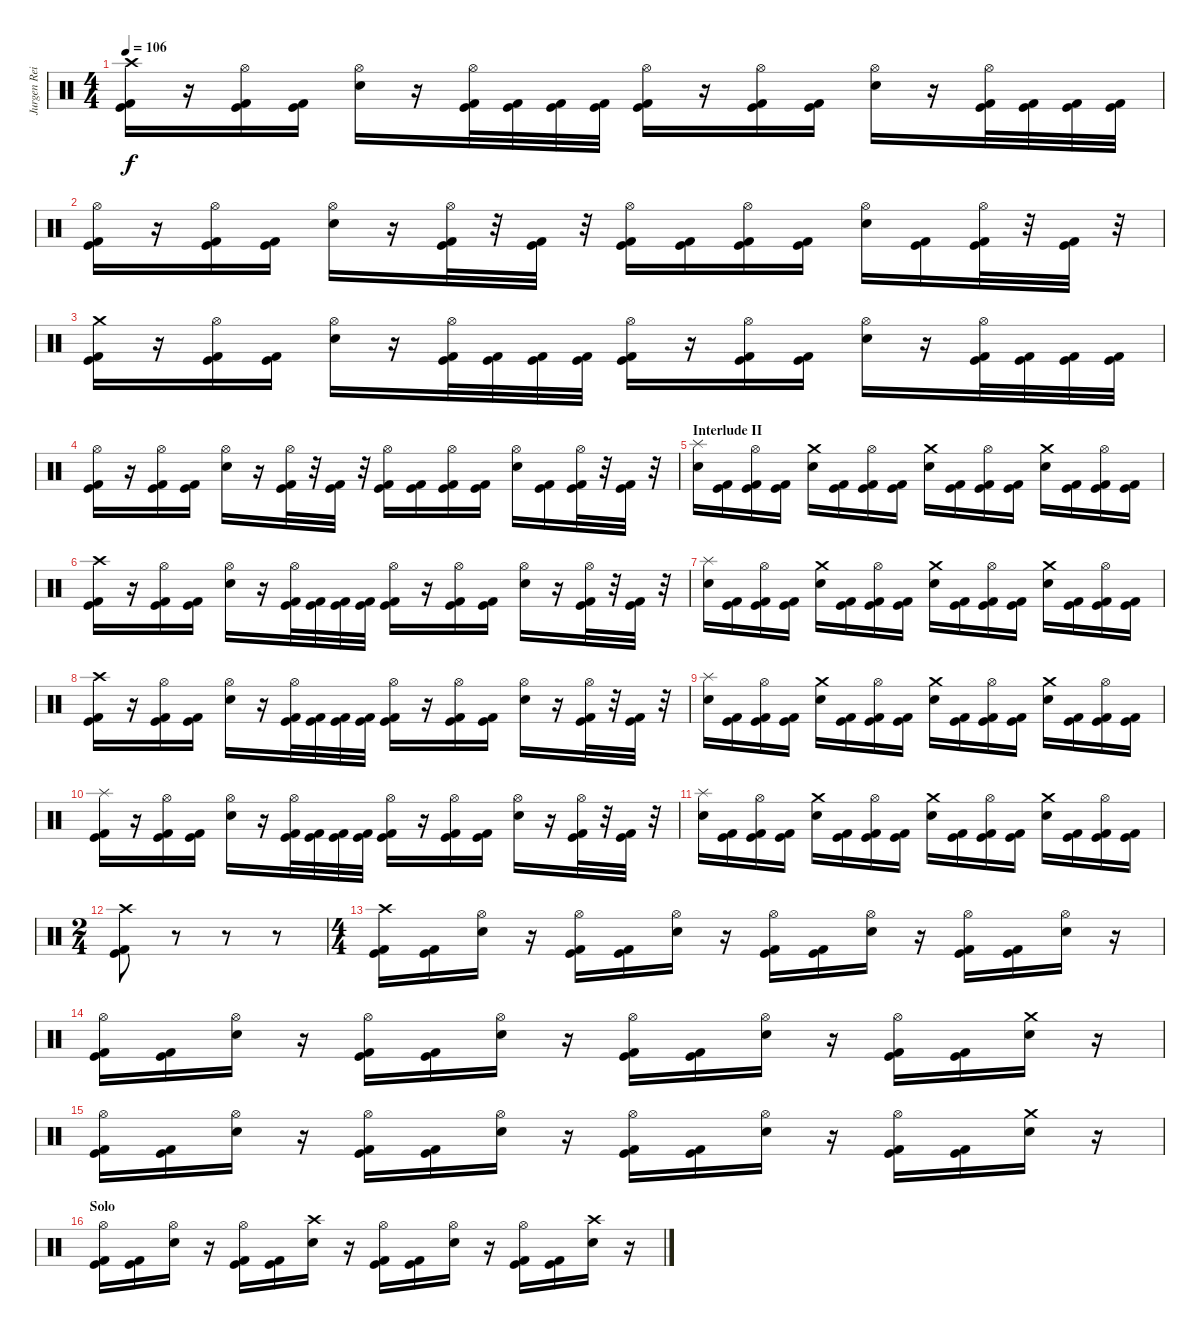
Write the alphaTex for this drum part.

\track ("Jurgen Reil" "Jurgen Rei") {instrument percussion}
\staff {score}
\articulation defaults
\ts (4 4)
\tempo 106
\clef neutral
\ks c
("Crash high (hit)" "Kick (hit)" "Kick (hit) 2").16{dy f} r.16 ("Hi-Hat (open)" "Kick (hit)" "Kick (hit) 2").16 ("Kick (hit)" "Kick (hit) 2").16 ("Hi-Hat (open)" "Electric Snare (hit)").16 r.16 ("Hi-Hat (open)" "Kick (hit)" "Kick (hit) 2").32 ("Kick (hit)" "Kick (hit) 2").32 ("Kick (hit)" "Kick (hit) 2").32 ("Kick (hit)" "Kick (hit) 2").32 ("Hi-Hat (open)" "Kick (hit)" "Kick (hit) 2").16 r.16 ("Hi-Hat (open)" "Kick (hit)" "Kick (hit) 2").16 ("Kick (hit)" "Kick (hit) 2").16 ("Hi-Hat (open)" "Electric Snare (hit)").16 r.16 ("Hi-Hat (open)" "Kick (hit)" "Kick (hit) 2").32 ("Kick (hit)" "Kick (hit) 2").32 ("Kick (hit)" "Kick (hit) 2").32 ("Kick (hit)" "Kick (hit) 2").32 |
("Hi-Hat (open)" "Kick (hit)" "Kick (hit) 2").16 r.16 ("Hi-Hat (open)" "Kick (hit)" "Kick (hit) 2").16 ("Kick (hit)" "Kick (hit) 2").16 ("Hi-Hat (open)" "Electric Snare (hit)").16 r.16 ("Hi-Hat (open)" "Kick (hit)" "Kick (hit) 2").32 r.32 ("Kick (hit)" "Kick (hit) 2").32 r.32 ("Hi-Hat (open)" "Kick (hit)" "Kick (hit) 2").16 ("Kick (hit)" "Kick (hit) 2").16 ("Hi-Hat (open)" "Kick (hit)" "Kick (hit) 2").16 ("Kick (hit)" "Kick (hit) 2").16 ("Hi-Hat (open)" "Electric Snare (hit)").16 ("Kick (hit)" "Kick (hit) 2").16 ("Hi-Hat (open)" "Kick (hit)" "Kick (hit) 2").32 r.32 ("Kick (hit)" "Kick (hit) 2").32 r.32 |
("Crash medium (hit)" "Kick (hit)" "Kick (hit) 2").16 r.16 ("Hi-Hat (open)" "Kick (hit)" "Kick (hit) 2").16 ("Kick (hit)" "Kick (hit) 2").16 ("Hi-Hat (open)" "Electric Snare (hit)").16 r.16 ("Hi-Hat (open)" "Kick (hit)" "Kick (hit) 2").32 ("Kick (hit)" "Kick (hit) 2").32 ("Kick (hit)" "Kick (hit) 2").32 ("Kick (hit)" "Kick (hit) 2").32 ("Hi-Hat (open)" "Kick (hit)" "Kick (hit) 2").16 r.16 ("Hi-Hat (open)" "Kick (hit)" "Kick (hit) 2").16 ("Kick (hit)" "Kick (hit) 2").16 ("Hi-Hat (open)" "Electric Snare (hit)").16 r.16 ("Hi-Hat (open)" "Kick (hit)" "Kick (hit) 2").32 ("Kick (hit)" "Kick (hit) 2").32 ("Kick (hit)" "Kick (hit) 2").32 ("Kick (hit)" "Kick (hit) 2").32 |
("Hi-Hat (open)" "Kick (hit)" "Kick (hit) 2").16 r.16 ("Hi-Hat (open)" "Kick (hit)" "Kick (hit) 2").16 ("Kick (hit)" "Kick (hit) 2").16 ("Hi-Hat (open)" "Electric Snare (hit)").16 r.16 ("Hi-Hat (open)" "Kick (hit)" "Kick (hit) 2").32 r.32 ("Kick (hit)" "Kick (hit) 2").32 r.32 ("Hi-Hat (open)" "Kick (hit)" "Kick (hit) 2").16 ("Kick (hit)" "Kick (hit) 2").16 ("Hi-Hat (open)" "Kick (hit)" "Kick (hit) 2").16 ("Kick (hit)" "Kick (hit) 2").16 ("Hi-Hat (open)" "Electric Snare (hit)").16 ("Kick (hit)" "Kick (hit) 2").16 ("Hi-Hat (open)" "Kick (hit)" "Kick (hit) 2").32 r.32 ("Kick (hit)" "Kick (hit) 2").32 r.32 |
\section ("" "Interlude II")
("Splash (hit)" "Electric Snare (hit)").16 ("Kick (hit)" "Kick (hit) 2").16 ("Hi-Hat (open)" "Kick (hit)" "Kick (hit) 2").16 ("Kick (hit)" "Kick (hit) 2").16 ("Crash medium (hit)" "Electric Snare (hit)").16 ("Kick (hit)" "Kick (hit) 2").16 ("Hi-Hat (open)" "Kick (hit)" "Kick (hit) 2").16 ("Kick (hit)" "Kick (hit) 2").16 ("Crash medium (hit)" "Electric Snare (hit)").16 ("Kick (hit)" "Kick (hit) 2").16 ("Hi-Hat (open)" "Kick (hit)" "Kick (hit) 2").16 ("Kick (hit)" "Kick (hit) 2").16 ("Crash medium (hit)" "Electric Snare (hit)").16 ("Kick (hit)" "Kick (hit) 2").16 ("Hi-Hat (open)" "Kick (hit)" "Kick (hit) 2").16 ("Kick (hit)" "Kick (hit) 2").16 |
("Crash high (hit)" "Kick (hit)" "Kick (hit) 2").16 r.16 ("Hi-Hat (open)" "Kick (hit)" "Kick (hit) 2").16 ("Kick (hit)" "Kick (hit) 2").16 ("Hi-Hat (open)" "Electric Snare (hit)").16 r.16 ("Hi-Hat (open)" "Kick (hit)" "Kick (hit) 2").32 ("Kick (hit)" "Kick (hit) 2").32 ("Kick (hit)" "Kick (hit) 2").32 ("Kick (hit)" "Kick (hit) 2").32 ("Hi-Hat (open)" "Kick (hit)" "Kick (hit) 2").16 r.16 ("Hi-Hat (open)" "Kick (hit)" "Kick (hit) 2").16 ("Kick (hit)" "Kick (hit) 2").16 ("Hi-Hat (open)" "Electric Snare (hit)").16 r.16 ("Hi-Hat (open)" "Kick (hit)" "Kick (hit) 2").32 r.32 ("Kick (hit)" "Kick (hit) 2").32 r.32 |
("Splash (hit)" "Electric Snare (hit)").16 ("Kick (hit)" "Kick (hit) 2").16 ("Hi-Hat (open)" "Kick (hit)" "Kick (hit) 2").16 ("Kick (hit)" "Kick (hit) 2").16 ("Crash medium (hit)" "Electric Snare (hit)").16 ("Kick (hit)" "Kick (hit) 2").16 ("Hi-Hat (open)" "Kick (hit)" "Kick (hit) 2").16 ("Kick (hit)" "Kick (hit) 2").16 ("Crash medium (hit)" "Electric Snare (hit)").16 ("Kick (hit)" "Kick (hit) 2").16 ("Hi-Hat (open)" "Kick (hit)" "Kick (hit) 2").16 ("Kick (hit)" "Kick (hit) 2").16 ("Crash medium (hit)" "Electric Snare (hit)").16 ("Kick (hit)" "Kick (hit) 2").16 ("Hi-Hat (open)" "Kick (hit)" "Kick (hit) 2").16 ("Kick (hit)" "Kick (hit) 2").16 |
("Crash high (hit)" "Kick (hit)" "Kick (hit) 2").16 r.16 ("Hi-Hat (open)" "Kick (hit)" "Kick (hit) 2").16 ("Kick (hit)" "Kick (hit) 2").16 ("Hi-Hat (open)" "Electric Snare (hit)").16 r.16 ("Hi-Hat (open)" "Kick (hit)" "Kick (hit) 2").32 ("Kick (hit)" "Kick (hit) 2").32 ("Kick (hit)" "Kick (hit) 2").32 ("Kick (hit)" "Kick (hit) 2").32 ("Hi-Hat (open)" "Kick (hit)" "Kick (hit) 2").16 r.16 ("Hi-Hat (open)" "Kick (hit)" "Kick (hit) 2").16 ("Kick (hit)" "Kick (hit) 2").16 ("Hi-Hat (open)" "Electric Snare (hit)").16 r.16 ("Hi-Hat (open)" "Kick (hit)" "Kick (hit) 2").32 r.32 ("Kick (hit)" "Kick (hit) 2").32 r.32 |
("Splash (hit)" "Electric Snare (hit)").16 ("Kick (hit)" "Kick (hit) 2").16 ("Hi-Hat (open)" "Kick (hit)" "Kick (hit) 2").16 ("Kick (hit)" "Kick (hit) 2").16 ("Crash medium (hit)" "Electric Snare (hit)").16 ("Kick (hit)" "Kick (hit) 2").16 ("Hi-Hat (open)" "Kick (hit)" "Kick (hit) 2").16 ("Kick (hit)" "Kick (hit) 2").16 ("Crash medium (hit)" "Electric Snare (hit)").16 ("Kick (hit)" "Kick (hit) 2").16 ("Hi-Hat (open)" "Kick (hit)" "Kick (hit) 2").16 ("Kick (hit)" "Kick (hit) 2").16 ("Crash medium (hit)" "Electric Snare (hit)").16 ("Kick (hit)" "Kick (hit) 2").16 ("Hi-Hat (open)" "Kick (hit)" "Kick (hit) 2").16 ("Kick (hit)" "Kick (hit) 2").16 |
("Splash (hit)" "Kick (hit)" "Kick (hit) 2").16 r.16 ("Hi-Hat (open)" "Kick (hit)" "Kick (hit) 2").16 ("Kick (hit)" "Kick (hit) 2").16 ("Hi-Hat (open)" "Electric Snare (hit)").16 r.16 ("Hi-Hat (open)" "Kick (hit)" "Kick (hit) 2").32 ("Kick (hit)" "Kick (hit) 2").32 ("Kick (hit)" "Kick (hit) 2").32 ("Kick (hit)" "Kick (hit) 2").32 ("Hi-Hat (open)" "Kick (hit)" "Kick (hit) 2").16 r.16 ("Hi-Hat (open)" "Kick (hit)" "Kick (hit) 2").16 ("Kick (hit)" "Kick (hit) 2").16 ("Hi-Hat (open)" "Electric Snare (hit)").16 r.16 ("Hi-Hat (open)" "Kick (hit)" "Kick (hit) 2").32 r.32 ("Kick (hit)" "Kick (hit) 2").32 r.32 |
("Splash (hit)" "Electric Snare (hit)").16 ("Kick (hit)" "Kick (hit) 2").16 ("Hi-Hat (open)" "Kick (hit)" "Kick (hit) 2").16 ("Kick (hit)" "Kick (hit) 2").16 ("Crash medium (hit)" "Electric Snare (hit)").16 ("Kick (hit)" "Kick (hit) 2").16 ("Hi-Hat (open)" "Kick (hit)" "Kick (hit) 2").16 ("Kick (hit)" "Kick (hit) 2").16 ("Crash medium (hit)" "Electric Snare (hit)").16 ("Kick (hit)" "Kick (hit) 2").16 ("Hi-Hat (open)" "Kick (hit)" "Kick (hit) 2").16 ("Kick (hit)" "Kick (hit) 2").16 ("Crash medium (hit)" "Electric Snare (hit)").16 ("Kick (hit)" "Kick (hit) 2").16 ("Hi-Hat (open)" "Kick (hit)" "Kick (hit) 2").16 ("Kick (hit)" "Kick (hit) 2").16 |
\ts (2 4)
("Crash high (hit)" "Kick (hit)" "Kick (hit) 2").8 r.8 r.8 r.8 |
\ts (4 4)
("Crash high (hit)" "Kick (hit)" "Kick (hit) 2").16 ("Kick (hit)" "Kick (hit) 2").16 ("Hi-Hat (open)" "Electric Snare (hit)").16 r.16 ("Hi-Hat (open)" "Kick (hit)" "Kick (hit) 2").16 ("Kick (hit)" "Kick (hit) 2").16 ("Hi-Hat (open)" "Electric Snare (hit)").16 r.16 ("Hi-Hat (open)" "Kick (hit)" "Kick (hit) 2").16 ("Kick (hit)" "Kick (hit) 2").16 ("Hi-Hat (open)" "Electric Snare (hit)").16 r.16 ("Hi-Hat (open)" "Kick (hit)" "Kick (hit) 2").16 ("Kick (hit)" "Kick (hit) 2").16 ("Hi-Hat (open)" "Electric Snare (hit)").16 r.16 |
("Hi-Hat (open)" "Kick (hit)" "Kick (hit) 2").16 ("Kick (hit)" "Kick (hit) 2").16 ("Hi-Hat (open)" "Electric Snare (hit)").16 r.16 ("Hi-Hat (open)" "Kick (hit)" "Kick (hit) 2").16 ("Kick (hit)" "Kick (hit) 2").16 ("Hi-Hat (open)" "Electric Snare (hit)").16 r.16 ("Hi-Hat (open)" "Kick (hit)" "Kick (hit) 2").16 ("Kick (hit)" "Kick (hit) 2").16 ("Hi-Hat (open)" "Electric Snare (hit)").16 r.16 ("Hi-Hat (open)" "Kick (hit)" "Kick (hit) 2").16 ("Kick (hit)" "Kick (hit) 2").16 ("Crash medium (hit)" "Electric Snare (hit)").16 r.16 |
("Hi-Hat (open)" "Kick (hit)" "Kick (hit) 2").16 ("Kick (hit)" "Kick (hit) 2").16 ("Hi-Hat (open)" "Electric Snare (hit)").16 r.16 ("Hi-Hat (open)" "Kick (hit)" "Kick (hit) 2").16 ("Kick (hit)" "Kick (hit) 2").16 ("Hi-Hat (open)" "Electric Snare (hit)").16 r.16 ("Hi-Hat (open)" "Kick (hit)" "Kick (hit) 2").16 ("Kick (hit)" "Kick (hit) 2").16 ("Hi-Hat (open)" "Electric Snare (hit)").16 r.16 ("Hi-Hat (open)" "Kick (hit)" "Kick (hit) 2").16 ("Kick (hit)" "Kick (hit) 2").16 ("Crash medium (hit)" "Electric Snare (hit)").16 r.16 |
\section ("" "Solo")
("Hi-Hat (open)" "Kick (hit)" "Kick (hit) 2").16 ("Kick (hit)" "Kick (hit) 2").16 ("Hi-Hat (open)" "Electric Snare (hit)").16 r.16 ("Hi-Hat (open)" "Kick (hit)" "Kick (hit) 2").16 ("Kick (hit)" "Kick (hit) 2").16 ("Crash high (hit)" "Electric Snare (hit)").16 r.16 ("Hi-Hat (open)" "Kick (hit)" "Kick (hit) 2").16 ("Kick (hit)" "Kick (hit) 2").16 ("Hi-Hat (open)" "Electric Snare (hit)").16 r.16 ("Hi-Hat (open)" "Kick (hit)" "Kick (hit) 2").16 ("Kick (hit)" "Kick (hit) 2").16 ("Crash high (hit)" "Electric Snare (hit)").16 r.16
